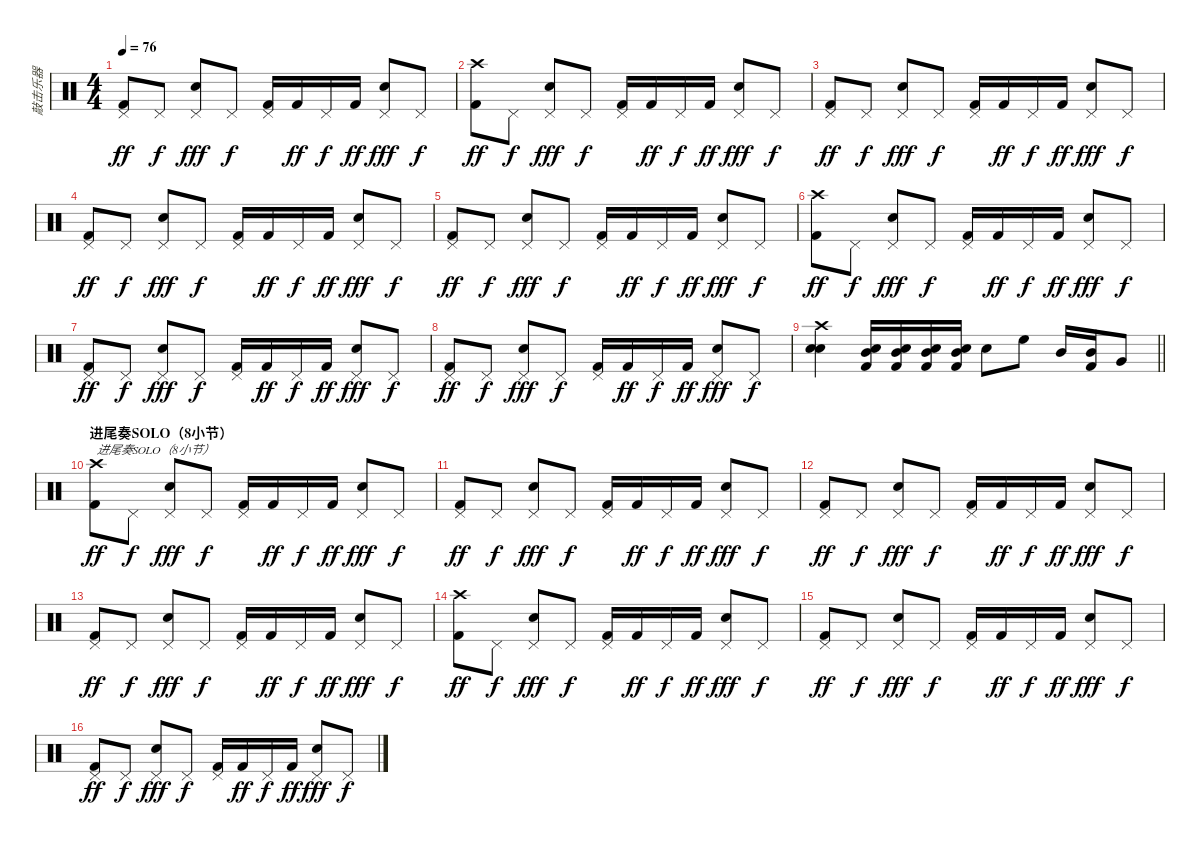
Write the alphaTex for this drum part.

\track ("敲击乐器" "敲击乐器") {instrument percussion}
\staff {score}
\articulation defaults
\ts (4 4)
\tempo 76
\clef neutral
\ks c
("Pedal Hi-Hat (hit)" "Kick (hit) 2").8{dy ff} "Pedal Hi-Hat (hit)".8{dy f} ("Pedal Hi-Hat (hit)" "Electric Snare (hit)").8{dy fff} "Pedal Hi-Hat (hit)".8{dy f} ("Pedal Hi-Hat (hit)" "Kick (hit) 2").16 "Kick (hit) 2".16{dy ff} "Pedal Hi-Hat (hit)".16{dy f} "Kick (hit) 2".16{dy ff} ("Pedal Hi-Hat (hit)" "Electric Snare (hit)").8{dy fff} "Pedal Hi-Hat (hit)".8{dy f} |
("Crash high (hit)" "Kick (hit) 2").8{dy ff} "Pedal Hi-Hat (hit)".8{dy f} ("Pedal Hi-Hat (hit)" "Electric Snare (hit)").8{dy fff} "Pedal Hi-Hat (hit)".8{dy f} ("Pedal Hi-Hat (hit)" "Kick (hit) 2").16 "Kick (hit) 2".16{dy ff} "Pedal Hi-Hat (hit)".16{dy f} "Kick (hit) 2".16{dy ff} ("Pedal Hi-Hat (hit)" "Electric Snare (hit)").8{dy fff} "Pedal Hi-Hat (hit)".8{dy f} |
("Pedal Hi-Hat (hit)" "Kick (hit) 2").8{dy ff} "Pedal Hi-Hat (hit)".8{dy f} ("Pedal Hi-Hat (hit)" "Electric Snare (hit)").8{dy fff} "Pedal Hi-Hat (hit)".8{dy f} ("Pedal Hi-Hat (hit)" "Kick (hit) 2").16 "Kick (hit) 2".16{dy ff} "Pedal Hi-Hat (hit)".16{dy f} "Kick (hit) 2".16{dy ff} ("Pedal Hi-Hat (hit)" "Electric Snare (hit)").8{dy fff} "Pedal Hi-Hat (hit)".8{dy f} |
("Pedal Hi-Hat (hit)" "Kick (hit) 2").8{dy ff} "Pedal Hi-Hat (hit)".8{dy f} ("Pedal Hi-Hat (hit)" "Electric Snare (hit)").8{dy fff} "Pedal Hi-Hat (hit)".8{dy f} ("Pedal Hi-Hat (hit)" "Kick (hit) 2").16 "Kick (hit) 2".16{dy ff} "Pedal Hi-Hat (hit)".16{dy f} "Kick (hit) 2".16{dy ff} ("Pedal Hi-Hat (hit)" "Electric Snare (hit)").8{dy fff} "Pedal Hi-Hat (hit)".8{dy f} |
("Pedal Hi-Hat (hit)" "Kick (hit) 2").8{dy ff} "Pedal Hi-Hat (hit)".8{dy f} ("Pedal Hi-Hat (hit)" "Electric Snare (hit)").8{dy fff} "Pedal Hi-Hat (hit)".8{dy f} ("Pedal Hi-Hat (hit)" "Kick (hit) 2").16 "Kick (hit) 2".16{dy ff} "Pedal Hi-Hat (hit)".16{dy f} "Kick (hit) 2".16{dy ff} ("Pedal Hi-Hat (hit)" "Electric Snare (hit)").8{dy fff} "Pedal Hi-Hat (hit)".8{dy f} |
("Crash high (hit)" "Kick (hit) 2").8{dy ff} "Pedal Hi-Hat (hit)".8{dy f} ("Pedal Hi-Hat (hit)" "Electric Snare (hit)").8{dy fff} "Pedal Hi-Hat (hit)".8{dy f} ("Pedal Hi-Hat (hit)" "Kick (hit) 2").16 "Kick (hit) 2".16{dy ff} "Pedal Hi-Hat (hit)".16{dy f} "Kick (hit) 2".16{dy ff} ("Pedal Hi-Hat (hit)" "Electric Snare (hit)").8{dy fff} "Pedal Hi-Hat (hit)".8{dy f} |
("Pedal Hi-Hat (hit)" "Kick (hit) 2").8{dy ff} "Pedal Hi-Hat (hit)".8{dy f} ("Pedal Hi-Hat (hit)" "Electric Snare (hit)").8{dy fff} "Pedal Hi-Hat (hit)".8{dy f} ("Pedal Hi-Hat (hit)" "Kick (hit) 2").16 "Kick (hit) 2".16{dy ff} "Pedal Hi-Hat (hit)".16{dy f} "Kick (hit) 2".16{dy ff} ("Pedal Hi-Hat (hit)" "Electric Snare (hit)").8{dy fff} "Pedal Hi-Hat (hit)".8{dy f} |
("Pedal Hi-Hat (hit)" "Kick (hit) 2").8{dy ff} "Pedal Hi-Hat (hit)".8{dy f} ("Pedal Hi-Hat (hit)" "Electric Snare (hit)").8{dy fff} "Pedal Hi-Hat (hit)".8{dy f} ("Pedal Hi-Hat (hit)" "Kick (hit) 2").16 "Kick (hit) 2".16{dy ff} "Pedal Hi-Hat (hit)".16{dy f} "Kick (hit) 2".16{dy ff} ("Pedal Hi-Hat (hit)" "Electric Snare (hit)").8{dy fff} "Pedal Hi-Hat (hit)".8{dy f} |
\barLineRight lightlight
("Crash high (hit)" "Snare (hit) 2" "Electric Snare (hit)").4 ("Mid Tom (hit)" "Kick (hit) 2" "Snare (hit) 2").16 ("Mid Tom (hit)" "Kick (hit) 2" "Snare (hit) 2").16 ("Mid Tom (hit)" "Kick (hit) 2" "Snare (hit) 2").16 ("Mid Tom (hit)" "Kick (hit) 2" "Snare (hit) 2").16 "Snare (hit) 2".8 "High Floor Tom (hit)".8 "Mid Tom (hit)".16 ("Mid Tom (hit)" "Kick (hit) 2").16 "Very Low Tom (hit)".8 |
\section ("" "进尾奏SOLO（8小节）")
("Crash high (hit)" "Kick (hit) 2").8{txt "进尾奏SOLO（8小节）" dy ff} "Pedal Hi-Hat (hit)".8{dy f} ("Pedal Hi-Hat (hit)" "Electric Snare (hit)").8{dy fff} "Pedal Hi-Hat (hit)".8{dy f} ("Pedal Hi-Hat (hit)" "Kick (hit) 2").16 "Kick (hit) 2".16{dy ff} "Pedal Hi-Hat (hit)".16{dy f} "Kick (hit) 2".16{dy ff} ("Pedal Hi-Hat (hit)" "Electric Snare (hit)").8{dy fff} "Pedal Hi-Hat (hit)".8{dy f} |
("Pedal Hi-Hat (hit)" "Kick (hit) 2").8{dy ff} "Pedal Hi-Hat (hit)".8{dy f} ("Pedal Hi-Hat (hit)" "Electric Snare (hit)").8{dy fff} "Pedal Hi-Hat (hit)".8{dy f} ("Pedal Hi-Hat (hit)" "Kick (hit) 2").16 "Kick (hit) 2".16{dy ff} "Pedal Hi-Hat (hit)".16{dy f} "Kick (hit) 2".16{dy ff} ("Pedal Hi-Hat (hit)" "Electric Snare (hit)").8{dy fff} "Pedal Hi-Hat (hit)".8{dy f} |
("Pedal Hi-Hat (hit)" "Kick (hit) 2").8{dy ff} "Pedal Hi-Hat (hit)".8{dy f} ("Pedal Hi-Hat (hit)" "Electric Snare (hit)").8{dy fff} "Pedal Hi-Hat (hit)".8{dy f} ("Pedal Hi-Hat (hit)" "Kick (hit) 2").16 "Kick (hit) 2".16{dy ff} "Pedal Hi-Hat (hit)".16{dy f} "Kick (hit) 2".16{dy ff} ("Pedal Hi-Hat (hit)" "Electric Snare (hit)").8{dy fff} "Pedal Hi-Hat (hit)".8{dy f} |
("Pedal Hi-Hat (hit)" "Kick (hit) 2").8{dy ff} "Pedal Hi-Hat (hit)".8{dy f} ("Pedal Hi-Hat (hit)" "Electric Snare (hit)").8{dy fff} "Pedal Hi-Hat (hit)".8{dy f} ("Pedal Hi-Hat (hit)" "Kick (hit) 2").16 "Kick (hit) 2".16{dy ff} "Pedal Hi-Hat (hit)".16{dy f} "Kick (hit) 2".16{dy ff} ("Pedal Hi-Hat (hit)" "Electric Snare (hit)").8{dy fff} "Pedal Hi-Hat (hit)".8{dy f} |
("Crash high (hit)" "Kick (hit) 2").8{dy ff} "Pedal Hi-Hat (hit)".8{dy f} ("Pedal Hi-Hat (hit)" "Electric Snare (hit)").8{dy fff} "Pedal Hi-Hat (hit)".8{dy f} ("Pedal Hi-Hat (hit)" "Kick (hit) 2").16 "Kick (hit) 2".16{dy ff} "Pedal Hi-Hat (hit)".16{dy f} "Kick (hit) 2".16{dy ff} ("Pedal Hi-Hat (hit)" "Electric Snare (hit)").8{dy fff} "Pedal Hi-Hat (hit)".8{dy f} |
("Pedal Hi-Hat (hit)" "Kick (hit) 2").8{dy ff} "Pedal Hi-Hat (hit)".8{dy f} ("Pedal Hi-Hat (hit)" "Electric Snare (hit)").8{dy fff} "Pedal Hi-Hat (hit)".8{dy f} ("Pedal Hi-Hat (hit)" "Kick (hit) 2").16 "Kick (hit) 2".16{dy ff} "Pedal Hi-Hat (hit)".16{dy f} "Kick (hit) 2".16{dy ff} ("Pedal Hi-Hat (hit)" "Electric Snare (hit)").8{dy fff} "Pedal Hi-Hat (hit)".8{dy f} |
("Pedal Hi-Hat (hit)" "Kick (hit) 2").8{dy ff} "Pedal Hi-Hat (hit)".8{dy f} ("Pedal Hi-Hat (hit)" "Electric Snare (hit)").8{dy fff} "Pedal Hi-Hat (hit)".8{dy f} ("Pedal Hi-Hat (hit)" "Kick (hit) 2").16 "Kick (hit) 2".16{dy ff} "Pedal Hi-Hat (hit)".16{dy f} "Kick (hit) 2".16{dy ff} ("Pedal Hi-Hat (hit)" "Electric Snare (hit)").8{dy fff} "Pedal Hi-Hat (hit)".8{dy f}
